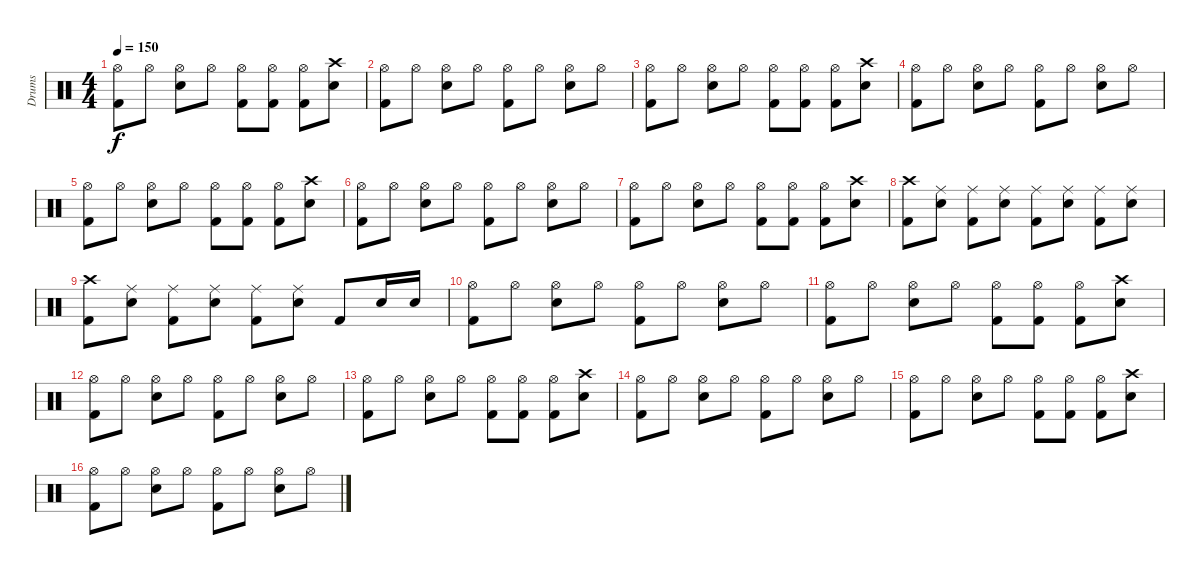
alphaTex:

\track ("Drums" "Drums") {instrument percussion}
\staff {score}
\articulation defaults
\ts (4 4)
\tempo 150
\clef neutral
\ks c
("Hi-Hat (open)" "Kick (hit) 2").8{dy f volume 16} "Hi-Hat (open)".8 ("Hi-Hat (open)" "Electric Snare (hit)").8 "Hi-Hat (open)".8 ("Hi-Hat (open)" "Kick (hit) 2").8 ("Hi-Hat (open)" "Kick (hit) 2").8 ("Hi-Hat (open)" "Kick (hit) 2").8 ("Crash high (hit)" "Electric Snare (hit)").8 |
("Hi-Hat (open)" "Kick (hit) 2").8{volume 16} "Hi-Hat (open)".8 ("Hi-Hat (open)" "Electric Snare (hit)").8 "Hi-Hat (open)".8 ("Hi-Hat (open)" "Kick (hit) 2").8 "Hi-Hat (open)".8 ("Hi-Hat (open)" "Electric Snare (hit)").8 "Hi-Hat (open)".8 |
("Hi-Hat (open)" "Kick (hit) 2").8{volume 16} "Hi-Hat (open)".8 ("Hi-Hat (open)" "Electric Snare (hit)").8 "Hi-Hat (open)".8 ("Hi-Hat (open)" "Kick (hit) 2").8 ("Hi-Hat (open)" "Kick (hit) 2").8 ("Hi-Hat (open)" "Kick (hit) 2").8 ("Crash high (hit)" "Electric Snare (hit)").8 |
("Hi-Hat (open)" "Kick (hit) 2").8{volume 16} "Hi-Hat (open)".8 ("Hi-Hat (open)" "Electric Snare (hit)").8 "Hi-Hat (open)".8 ("Hi-Hat (open)" "Kick (hit) 2").8 "Hi-Hat (open)".8 ("Hi-Hat (open)" "Electric Snare (hit)").8 "Hi-Hat (open)".8 |
("Hi-Hat (open)" "Kick (hit) 2").8{volume 16} "Hi-Hat (open)".8 ("Hi-Hat (open)" "Electric Snare (hit)").8 "Hi-Hat (open)".8 ("Hi-Hat (open)" "Kick (hit) 2").8 ("Hi-Hat (open)" "Kick (hit) 2").8 ("Hi-Hat (open)" "Kick (hit) 2").8 ("Crash high (hit)" "Electric Snare (hit)").8 |
("Hi-Hat (open)" "Kick (hit) 2").8{volume 16} "Hi-Hat (open)".8 ("Hi-Hat (open)" "Electric Snare (hit)").8 "Hi-Hat (open)".8 ("Hi-Hat (open)" "Kick (hit) 2").8 "Hi-Hat (open)".8 ("Hi-Hat (open)" "Electric Snare (hit)").8 "Hi-Hat (open)".8 |
("Hi-Hat (open)" "Kick (hit) 2").8{volume 16} "Hi-Hat (open)".8 ("Hi-Hat (open)" "Electric Snare (hit)").8 "Hi-Hat (open)".8 ("Hi-Hat (open)" "Kick (hit) 2").8 ("Hi-Hat (open)" "Kick (hit) 2").8 ("Hi-Hat (open)" "Kick (hit) 2").8 ("Crash high (hit)" "Electric Snare (hit)").8 |
("Crash high (hit)" "Kick (hit) 2").8 ("Ride (middle)" "Electric Snare (hit)").8 ("Ride (middle)" "Kick (hit) 2").8 ("Ride (middle)" "Electric Snare (hit)").8 ("Ride (middle)" "Kick (hit) 2").8 ("Ride (middle)" "Electric Snare (hit)").8 ("Ride (middle)" "Kick (hit) 2").8 ("Ride (middle)" "Electric Snare (hit)").8 |
("Crash high (hit)" "Kick (hit) 2").8 ("Ride (middle)" "Electric Snare (hit)").8 ("Ride (middle)" "Kick (hit) 2").8 ("Ride (middle)" "Electric Snare (hit)").8 ("Ride (middle)" "Kick (hit) 2").8 ("Ride (middle)" "Electric Snare (hit)").8 "Kick (hit) 2".8 "Electric Snare (hit)".16 "Electric Snare (hit)".16 |
("Hi-Hat (open)" "Kick (hit) 2").8{volume 16} "Hi-Hat (open)".8 ("Hi-Hat (open)" "Electric Snare (hit)").8 "Hi-Hat (open)".8 ("Hi-Hat (open)" "Kick (hit) 2").8 "Hi-Hat (open)".8 ("Hi-Hat (open)" "Electric Snare (hit)").8 "Hi-Hat (open)".8 |
("Hi-Hat (open)" "Kick (hit) 2").8{volume 16} "Hi-Hat (open)".8 ("Hi-Hat (open)" "Electric Snare (hit)").8 "Hi-Hat (open)".8 ("Hi-Hat (open)" "Kick (hit) 2").8 ("Hi-Hat (open)" "Kick (hit) 2").8 ("Hi-Hat (open)" "Kick (hit) 2").8 ("Crash high (hit)" "Electric Snare (hit)").8 |
("Hi-Hat (open)" "Kick (hit) 2").8{volume 16} "Hi-Hat (open)".8 ("Hi-Hat (open)" "Electric Snare (hit)").8 "Hi-Hat (open)".8 ("Hi-Hat (open)" "Kick (hit) 2").8 "Hi-Hat (open)".8 ("Hi-Hat (open)" "Electric Snare (hit)").8 "Hi-Hat (open)".8 |
("Hi-Hat (open)" "Kick (hit) 2").8{volume 16} "Hi-Hat (open)".8 ("Hi-Hat (open)" "Electric Snare (hit)").8 "Hi-Hat (open)".8 ("Hi-Hat (open)" "Kick (hit) 2").8 ("Hi-Hat (open)" "Kick (hit) 2").8 ("Hi-Hat (open)" "Kick (hit) 2").8 ("Crash high (hit)" "Electric Snare (hit)").8 |
("Hi-Hat (open)" "Kick (hit) 2").8{volume 16} "Hi-Hat (open)".8 ("Hi-Hat (open)" "Electric Snare (hit)").8 "Hi-Hat (open)".8 ("Hi-Hat (open)" "Kick (hit) 2").8 "Hi-Hat (open)".8 ("Hi-Hat (open)" "Electric Snare (hit)").8 "Hi-Hat (open)".8 |
("Hi-Hat (open)" "Kick (hit) 2").8{volume 16} "Hi-Hat (open)".8 ("Hi-Hat (open)" "Electric Snare (hit)").8 "Hi-Hat (open)".8 ("Hi-Hat (open)" "Kick (hit) 2").8 ("Hi-Hat (open)" "Kick (hit) 2").8 ("Hi-Hat (open)" "Kick (hit) 2").8 ("Crash high (hit)" "Electric Snare (hit)").8 |
("Hi-Hat (open)" "Kick (hit) 2").8{volume 16} "Hi-Hat (open)".8 ("Hi-Hat (open)" "Electric Snare (hit)").8 "Hi-Hat (open)".8 ("Hi-Hat (open)" "Kick (hit) 2").8 "Hi-Hat (open)".8 ("Hi-Hat (open)" "Electric Snare (hit)").8 "Hi-Hat (open)".8
